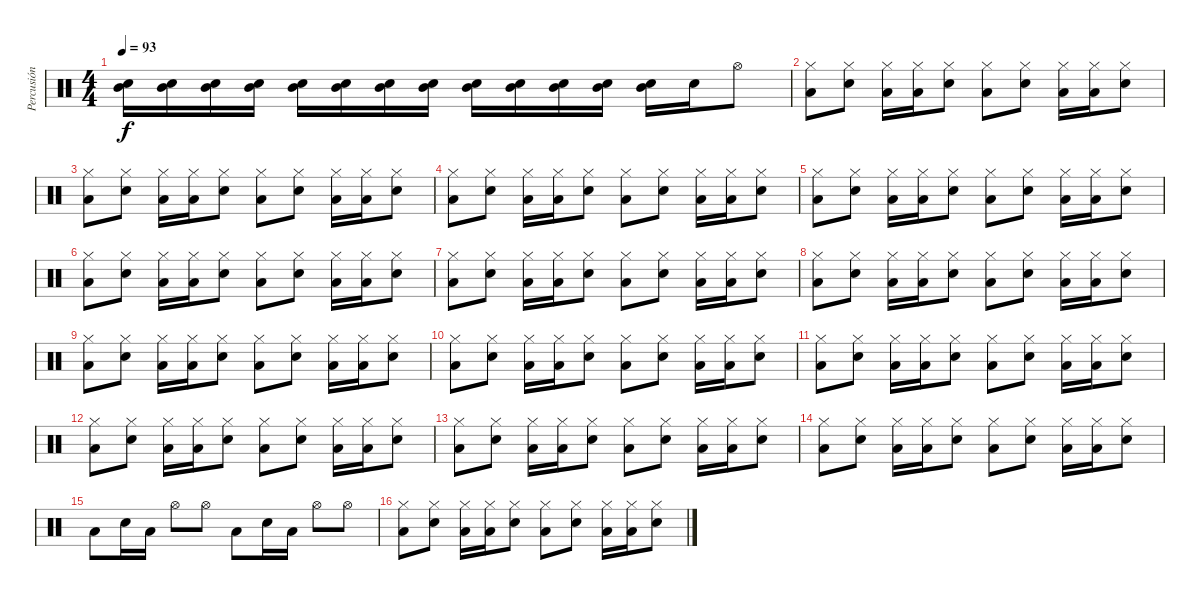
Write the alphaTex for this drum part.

\track ("Percusión (Miguel Tapia)" "Percusión ") {instrument percussion}
\staff {score}
\articulation defaults
\ts (4 4)
\tempo 93
\clef neutral
\ks c
("Mid Tom (hit)" "Electric Snare (hit)").16{dy f} ("Mid Tom (hit)" "Electric Snare (hit)").16 ("Mid Tom (hit)" "Electric Snare (hit)").16 ("Mid Tom (hit)" "Electric Snare (hit)").16 ("Mid Tom (hit)" "Electric Snare (hit)").16 ("Mid Tom (hit)" "Electric Snare (hit)").16 ("Mid Tom (hit)" "Electric Snare (hit)").16 ("Mid Tom (hit)" "Electric Snare (hit)").16 ("Mid Tom (hit)" "Electric Snare (hit)").16 ("Mid Tom (hit)" "Electric Snare (hit)").16 ("Mid Tom (hit)" "Electric Snare (hit)").16 ("Mid Tom (hit)" "Electric Snare (hit)").16 ("Mid Tom (hit)" "Electric Snare (hit)").16 "Snare (hit)".16 "Hi-Hat (open)".8 |
("Hi-Hat (closed)" "Low Tom (hit)").8 ("Hi-Hat (closed)" "Electric Snare (hit)").8 ("Hi-Hat (closed)" "Low Tom (hit)").16 ("Hi-Hat (closed)" "Low Tom (hit)").16 ("Hi-Hat (closed)" "Electric Snare (hit)").8 ("Hi-Hat (closed)" "Low Tom (hit)").8 ("Hi-Hat (closed)" "Electric Snare (hit)").8 ("Hi-Hat (closed)" "Low Tom (hit)").16 ("Hi-Hat (closed)" "Low Tom (hit)").16 ("Hi-Hat (closed)" "Electric Snare (hit)").8 |
("Hi-Hat (closed)" "Low Tom (hit)").8 ("Hi-Hat (closed)" "Electric Snare (hit)").8 ("Hi-Hat (closed)" "Low Tom (hit)").16 ("Hi-Hat (closed)" "Low Tom (hit)").16 ("Hi-Hat (closed)" "Electric Snare (hit)").8 ("Hi-Hat (closed)" "Low Tom (hit)").8 ("Hi-Hat (closed)" "Electric Snare (hit)").8 ("Hi-Hat (closed)" "Low Tom (hit)").16 ("Hi-Hat (closed)" "Low Tom (hit)").16 ("Hi-Hat (closed)" "Electric Snare (hit)").8 |
("Hi-Hat (closed)" "Low Tom (hit)").8 ("Hi-Hat (closed)" "Electric Snare (hit)").8 ("Hi-Hat (closed)" "Low Tom (hit)").16 ("Hi-Hat (closed)" "Low Tom (hit)").16 ("Hi-Hat (closed)" "Electric Snare (hit)").8 ("Hi-Hat (closed)" "Low Tom (hit)").8 ("Hi-Hat (closed)" "Electric Snare (hit)").8 ("Hi-Hat (closed)" "Low Tom (hit)").16 ("Hi-Hat (closed)" "Low Tom (hit)").16 ("Hi-Hat (closed)" "Electric Snare (hit)").8 |
("Hi-Hat (closed)" "Low Tom (hit)").8 ("Hi-Hat (closed)" "Electric Snare (hit)").8 ("Hi-Hat (closed)" "Low Tom (hit)").16 ("Hi-Hat (closed)" "Low Tom (hit)").16 ("Hi-Hat (closed)" "Electric Snare (hit)").8 ("Hi-Hat (closed)" "Low Tom (hit)").8 ("Hi-Hat (closed)" "Electric Snare (hit)").8 ("Hi-Hat (closed)" "Low Tom (hit)").16 ("Hi-Hat (closed)" "Low Tom (hit)").16 ("Hi-Hat (closed)" "Electric Snare (hit)").8 |
("Hi-Hat (closed)" "Low Tom (hit)").8 ("Hi-Hat (closed)" "Electric Snare (hit)").8 ("Hi-Hat (closed)" "Low Tom (hit)").16 ("Hi-Hat (closed)" "Low Tom (hit)").16 ("Hi-Hat (closed)" "Electric Snare (hit)").8 ("Hi-Hat (closed)" "Low Tom (hit)").8 ("Hi-Hat (closed)" "Electric Snare (hit)").8 ("Hi-Hat (closed)" "Low Tom (hit)").16 ("Hi-Hat (closed)" "Low Tom (hit)").16 ("Hi-Hat (closed)" "Electric Snare (hit)").8 |
("Hi-Hat (closed)" "Low Tom (hit)").8 ("Hi-Hat (closed)" "Electric Snare (hit)").8 ("Hi-Hat (closed)" "Low Tom (hit)").16 ("Hi-Hat (closed)" "Low Tom (hit)").16 ("Hi-Hat (closed)" "Electric Snare (hit)").8 ("Hi-Hat (closed)" "Low Tom (hit)").8 ("Hi-Hat (closed)" "Electric Snare (hit)").8 ("Hi-Hat (closed)" "Low Tom (hit)").16 ("Hi-Hat (closed)" "Low Tom (hit)").16 ("Hi-Hat (closed)" "Electric Snare (hit)").8 |
("Hi-Hat (closed)" "Low Tom (hit)").8 ("Hi-Hat (closed)" "Electric Snare (hit)").8 ("Hi-Hat (closed)" "Low Tom (hit)").16 ("Hi-Hat (closed)" "Low Tom (hit)").16 ("Hi-Hat (closed)" "Electric Snare (hit)").8 ("Hi-Hat (closed)" "Low Tom (hit)").8 ("Hi-Hat (closed)" "Electric Snare (hit)").8 ("Hi-Hat (closed)" "Low Tom (hit)").16 ("Hi-Hat (closed)" "Low Tom (hit)").16 ("Hi-Hat (closed)" "Electric Snare (hit)").8 |
("Hi-Hat (closed)" "Low Tom (hit)").8 ("Hi-Hat (closed)" "Electric Snare (hit)").8 ("Hi-Hat (closed)" "Low Tom (hit)").16 ("Hi-Hat (closed)" "Low Tom (hit)").16 ("Hi-Hat (closed)" "Electric Snare (hit)").8 ("Hi-Hat (closed)" "Low Tom (hit)").8 ("Hi-Hat (closed)" "Electric Snare (hit)").8 ("Hi-Hat (closed)" "Low Tom (hit)").16 ("Hi-Hat (closed)" "Low Tom (hit)").16 ("Hi-Hat (closed)" "Electric Snare (hit)").8 |
("Hi-Hat (closed)" "Low Tom (hit)").8 ("Hi-Hat (closed)" "Electric Snare (hit)").8 ("Hi-Hat (closed)" "Low Tom (hit)").16 ("Hi-Hat (closed)" "Low Tom (hit)").16 ("Hi-Hat (closed)" "Electric Snare (hit)").8 ("Hi-Hat (closed)" "Low Tom (hit)").8 ("Hi-Hat (closed)" "Electric Snare (hit)").8 ("Hi-Hat (closed)" "Low Tom (hit)").16 ("Hi-Hat (closed)" "Low Tom (hit)").16 ("Hi-Hat (closed)" "Electric Snare (hit)").8 |
("Hi-Hat (closed)" "Low Tom (hit)").8 ("Hi-Hat (closed)" "Electric Snare (hit)").8 ("Hi-Hat (closed)" "Low Tom (hit)").16 ("Hi-Hat (closed)" "Low Tom (hit)").16 ("Hi-Hat (closed)" "Electric Snare (hit)").8 ("Hi-Hat (closed)" "Low Tom (hit)").8 ("Hi-Hat (closed)" "Electric Snare (hit)").8 ("Hi-Hat (closed)" "Low Tom (hit)").16 ("Hi-Hat (closed)" "Low Tom (hit)").16 ("Hi-Hat (closed)" "Electric Snare (hit)").8 |
("Hi-Hat (closed)" "Low Tom (hit)").8 ("Hi-Hat (closed)" "Electric Snare (hit)").8 ("Hi-Hat (closed)" "Low Tom (hit)").16 ("Hi-Hat (closed)" "Low Tom (hit)").16 ("Hi-Hat (closed)" "Electric Snare (hit)").8 ("Hi-Hat (closed)" "Low Tom (hit)").8 ("Hi-Hat (closed)" "Electric Snare (hit)").8 ("Hi-Hat (closed)" "Low Tom (hit)").16 ("Hi-Hat (closed)" "Low Tom (hit)").16 ("Hi-Hat (closed)" "Electric Snare (hit)").8 |
("Hi-Hat (closed)" "Low Tom (hit)").8 ("Hi-Hat (closed)" "Electric Snare (hit)").8 ("Hi-Hat (closed)" "Low Tom (hit)").16 ("Hi-Hat (closed)" "Low Tom (hit)").16 ("Hi-Hat (closed)" "Electric Snare (hit)").8 ("Hi-Hat (closed)" "Low Tom (hit)").8 ("Hi-Hat (closed)" "Electric Snare (hit)").8 ("Hi-Hat (closed)" "Low Tom (hit)").16 ("Hi-Hat (closed)" "Low Tom (hit)").16 ("Hi-Hat (closed)" "Electric Snare (hit)").8 |
("Hi-Hat (closed)" "Low Tom (hit)").8 ("Hi-Hat (closed)" "Electric Snare (hit)").8 ("Hi-Hat (closed)" "Low Tom (hit)").16 ("Hi-Hat (closed)" "Low Tom (hit)").16 ("Hi-Hat (closed)" "Electric Snare (hit)").8 ("Hi-Hat (closed)" "Low Tom (hit)").8 ("Hi-Hat (closed)" "Electric Snare (hit)").8 ("Hi-Hat (closed)" "Low Tom (hit)").16 ("Hi-Hat (closed)" "Low Tom (hit)").16 ("Hi-Hat (closed)" "Electric Snare (hit)").8 |
"Low Tom (hit)".8 "Electric Snare (hit)".16 "Low Tom (hit)".16 "Hi-Hat (open)".8 "Hi-Hat (open)".8 "Low Tom (hit)".8 "Electric Snare (hit)".16 "Low Tom (hit)".16 "Hi-Hat (open)".8 "Hi-Hat (open)".8 |
("Hi-Hat (closed)" "Low Tom (hit)").8 ("Hi-Hat (closed)" "Electric Snare (hit)").8 ("Hi-Hat (closed)" "Low Tom (hit)").16 ("Hi-Hat (closed)" "Low Tom (hit)").16 ("Hi-Hat (closed)" "Electric Snare (hit)").8 ("Hi-Hat (closed)" "Low Tom (hit)").8 ("Hi-Hat (closed)" "Electric Snare (hit)").8 ("Hi-Hat (closed)" "Low Tom (hit)").16 ("Hi-Hat (closed)" "Low Tom (hit)").16 ("Hi-Hat (closed)" "Electric Snare (hit)").8
